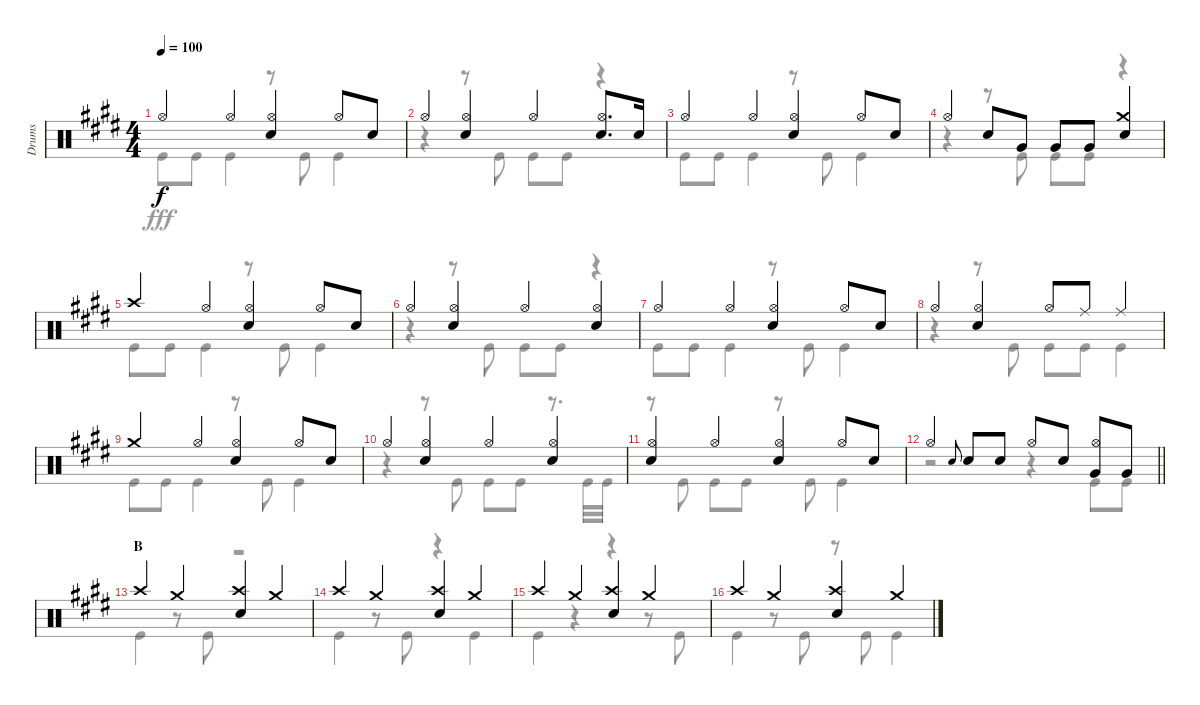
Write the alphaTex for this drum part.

\track ("Drums" "Drums") {instrument percussion}
\staff {score}
\articulation defaults
\voice
\ts (4 4)
\tempo 100
\clef neutral
\ks e "Hi-Hat (open)".4{dy f} "Hi-Hat (open)".4
("Hi-Hat (open)" "Snare (hit) 2").4 "Hi-Hat (open)".8 "Snare (hit) 2".8 |
"Hi-Hat (open)".4 ("Hi-Hat (open)" "Snare (hit) 2").4 "Hi-Hat (open)".4 ("Hi-Hat (open)" "Snare (hit) 2").8{d} "Snare (hit) 2".16 |
"Hi-Hat (open)".4 "Hi-Hat (open)".4 ("Hi-Hat (open)" "Snare (hit) 2").4 "Hi-Hat (open)".8 "Snare (hit) 2".8 |
"Hi-Hat (open)".4 "Snare (hit) 2".8 "Very Low Tom (hit)".8 "Very Low Tom (hit)".8 "Very Low Tom (hit)".8 ("Crash medium (hit)" "Snare (hit) 2").4 |
"Crash high (hit)".4 "Hi-Hat (open)".4 ("Hi-Hat (open)" "Snare (hit) 2").4 "Hi-Hat (open)".8 "Snare (hit) 2".8 |
"Hi-Hat (open)".4 ("Hi-Hat (open)" "Snare (hit) 2").4 "Hi-Hat (open)".4 ("Hi-Hat (open)" "Snare (hit) 2").4 |
"Hi-Hat (open)".4 "Hi-Hat (open)".4 ("Hi-Hat (open)" "Snare (hit) 2").4 "Hi-Hat (open)".8 "Snare (hit) 2".8 |
"Hi-Hat (open)".4 ("Hi-Hat (open)" "Snare (hit) 2").4 "Hi-Hat (open)".8 "Ride (middle)".8 "Ride (middle)".4 |
"Crash medium (hit)".4 "Hi-Hat (open)".4 ("Hi-Hat (open)" "Snare (hit) 2").4 "Hi-Hat (open)".8 "Snare (hit) 2".8 |
"Hi-Hat (open)".4 ("Hi-Hat (open)" "Snare (hit) 2").4 "Hi-Hat (open)".4 ("Hi-Hat (open)" "Snare (hit) 2").4 |
("Hi-Hat (open)" "Snare (hit) 2").4 "Hi-Hat (open)".4 ("Hi-Hat (open)" "Snare (hit) 2").4 "Hi-Hat (open)".8 "Snare (hit) 2".8 |
\barLineRight lightlight "Hi-Hat (open)".4 "Snare (hit) 2".8{gr onbeat} "Snare (hit) 2".8 "Snare (hit) 2".8 "Hi-Hat (open)".8 "Snare (hit) 2".8
("Hi-Hat (open)" "Very Low Tom (hit)").8 "Very Low Tom (hit)".8 |
\section ("" "B")
"Crash high (hit)".4 "Crash medium (hit)".4 ("Crash high (hit)" "Snare (hit) 2").4 "Crash medium (hit)".4 |
"Crash high (hit)".4 "Crash medium (hit)".4 ("Crash high (hit)" "Snare (hit) 2").4 "Crash medium (hit)".4 |
"Crash high (hit)".4 "Crash medium (hit)".4 ("Crash high (hit)" "Snare (hit) 2").4 "Crash medium (hit)".4 |
"Crash high (hit)".4 "Crash medium (hit)".4 ("Crash high (hit)" "Snare (hit) 2").4 "Crash medium (hit)".4
\voice
\clef neutral
\ottava regular
\simile none
\ks e "Kick (hit)".8{dy fff} "Kick (hit)".8 "Kick (hit)".4
r.8 "Kick (hit)".8 "Kick (hit)".4 |
r.4 r.8 "Kick (hit)".8 "Kick (hit)".8 "Kick (hit)".8 r.4 |
"Kick (hit)".8 "Kick (hit)".8 "Kick (hit)".4 r.8 "Kick (hit)".8 "Kick (hit)".4 |
r.4 r.8 "Kick (hit)".8 "Kick (hit)".8 "Kick (hit)".8 r.4 |
"Kick (hit)".8 "Kick (hit)".8 "Kick (hit)".4 r.8 "Kick (hit)".8 "Kick (hit)".4 |
r.4 r.8 "Kick (hit)".8 "Kick (hit)".8 "Kick (hit)".8 r.4 |
"Kick (hit)".8 "Kick (hit)".8 "Kick (hit)".4 r.8 "Kick (hit)".8 "Kick (hit)".4 |
r.4 r.8 "Kick (hit)".8 "Kick (hit)".8 "Kick (hit)".8 "Kick (hit)".4 |
"Kick (hit)".8 "Kick (hit)".8 "Kick (hit)".4 r.8 "Kick (hit)".8 "Kick (hit)".4 |
r.4 r.8 "Kick (hit)".8 "Kick (hit)".8 "Kick (hit)".8 r.8{d} "Kick (hit)".32 "Kick (hit)".32 |
r.8 "Kick (hit)".8 "Kick (hit)".8 "Kick (hit)".8 r.8 "Kick (hit)".8 "Kick (hit)".4 |
\barLineRight lightlight
r.2 r.4 "Kick (hit)".8 "Kick (hit)".8 |
"Kick (hit)".4 r.8 "Kick (hit)".8 r.2 |
"Kick (hit)".4 r.8 "Kick (hit)".8 r.4 "Kick (hit)".4 |
"Kick (hit)".4 r.4 r.4 r.8 "Kick (hit)".8 |
"Kick (hit)".4 r.8 "Kick (hit)".8 r.8 "Kick (hit)".8 "Kick (hit)".4
